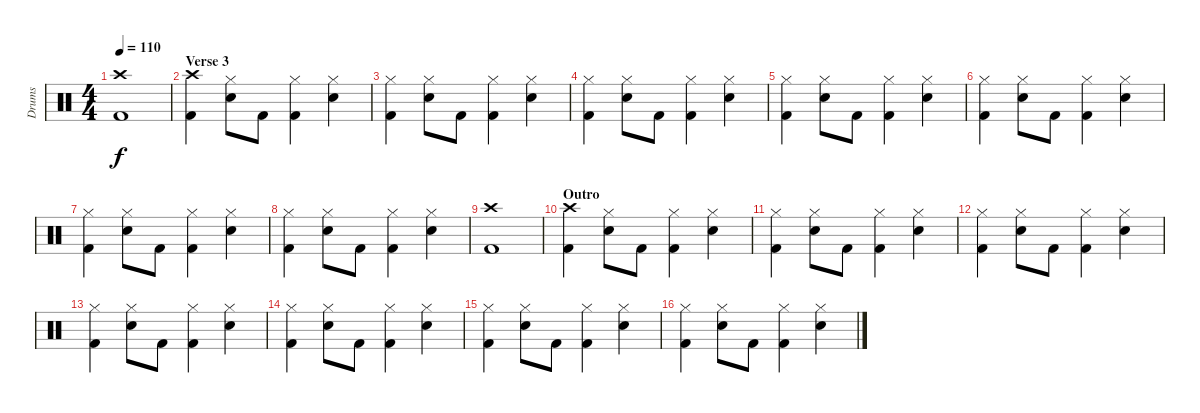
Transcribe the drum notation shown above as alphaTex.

\track ("Drums" "Drums") {instrument percussion}
\staff {score}
\articulation defaults
\ts (4 4)
\tempo 110
\clef neutral
\ks c
("Crash high (hit)" "Kick (hit) 2").1{dy f} |
\section ("" "Verse 3")
("Crash high (hit)" "Kick (hit) 2").4 ("Hi-Hat (closed)" "Snare (hit) 2").8 "Kick (hit) 2".8 ("Hi-Hat (closed)" "Kick (hit) 2").4 ("Hi-Hat (closed)" "Snare (hit) 2").4 |
("Hi-Hat (closed)" "Kick (hit) 2").4 ("Hi-Hat (closed)" "Snare (hit) 2").8 "Kick (hit) 2".8 ("Hi-Hat (closed)" "Kick (hit) 2").4 ("Hi-Hat (closed)" "Snare (hit) 2").4 |
("Hi-Hat (closed)" "Kick (hit) 2").4 ("Hi-Hat (closed)" "Snare (hit) 2").8 "Kick (hit) 2".8 ("Hi-Hat (closed)" "Kick (hit) 2").4 ("Hi-Hat (closed)" "Snare (hit) 2").4 |
("Hi-Hat (closed)" "Kick (hit) 2").4 ("Hi-Hat (closed)" "Snare (hit) 2").8 "Kick (hit) 2".8 ("Hi-Hat (closed)" "Kick (hit) 2").4 ("Hi-Hat (closed)" "Snare (hit) 2").4 |
("Hi-Hat (closed)" "Kick (hit) 2").4 ("Hi-Hat (closed)" "Snare (hit) 2").8 "Kick (hit) 2".8 ("Hi-Hat (closed)" "Kick (hit) 2").4 ("Hi-Hat (closed)" "Snare (hit) 2").4 |
("Hi-Hat (closed)" "Kick (hit) 2").4 ("Hi-Hat (closed)" "Snare (hit) 2").8 "Kick (hit) 2".8 ("Hi-Hat (closed)" "Kick (hit) 2").4 ("Hi-Hat (closed)" "Snare (hit) 2").4 |
("Hi-Hat (closed)" "Kick (hit) 2").4 ("Hi-Hat (closed)" "Snare (hit) 2").8 "Kick (hit) 2".8 ("Hi-Hat (closed)" "Kick (hit) 2").4 ("Hi-Hat (closed)" "Snare (hit) 2").4 |
("Crash high (hit)" "Kick (hit) 2").1 |
\section ("" "Outro")
("Crash high (hit)" "Kick (hit) 2").4 ("Hi-Hat (closed)" "Snare (hit) 2").8 "Kick (hit) 2".8 ("Hi-Hat (closed)" "Kick (hit) 2").4 ("Hi-Hat (closed)" "Snare (hit) 2").4 |
("Hi-Hat (closed)" "Kick (hit) 2").4 ("Hi-Hat (closed)" "Snare (hit) 2").8 "Kick (hit) 2".8 ("Hi-Hat (closed)" "Kick (hit) 2").4 ("Hi-Hat (closed)" "Snare (hit) 2").4 |
("Hi-Hat (closed)" "Kick (hit) 2").4 ("Hi-Hat (closed)" "Snare (hit) 2").8 "Kick (hit) 2".8 ("Hi-Hat (closed)" "Kick (hit) 2").4 ("Hi-Hat (closed)" "Snare (hit) 2").4 |
("Hi-Hat (closed)" "Kick (hit) 2").4 ("Hi-Hat (closed)" "Snare (hit) 2").8 "Kick (hit) 2".8 ("Hi-Hat (closed)" "Kick (hit) 2").4 ("Hi-Hat (closed)" "Snare (hit) 2").4 |
("Hi-Hat (closed)" "Kick (hit) 2").4 ("Hi-Hat (closed)" "Snare (hit) 2").8 "Kick (hit) 2".8 ("Hi-Hat (closed)" "Kick (hit) 2").4 ("Hi-Hat (closed)" "Snare (hit) 2").4 |
("Hi-Hat (closed)" "Kick (hit) 2").4 ("Hi-Hat (closed)" "Snare (hit) 2").8 "Kick (hit) 2".8 ("Hi-Hat (closed)" "Kick (hit) 2").4 ("Hi-Hat (closed)" "Snare (hit) 2").4 |
("Hi-Hat (closed)" "Kick (hit) 2").4 ("Hi-Hat (closed)" "Snare (hit) 2").8 "Kick (hit) 2".8 ("Hi-Hat (closed)" "Kick (hit) 2").4 ("Hi-Hat (closed)" "Snare (hit) 2").4
